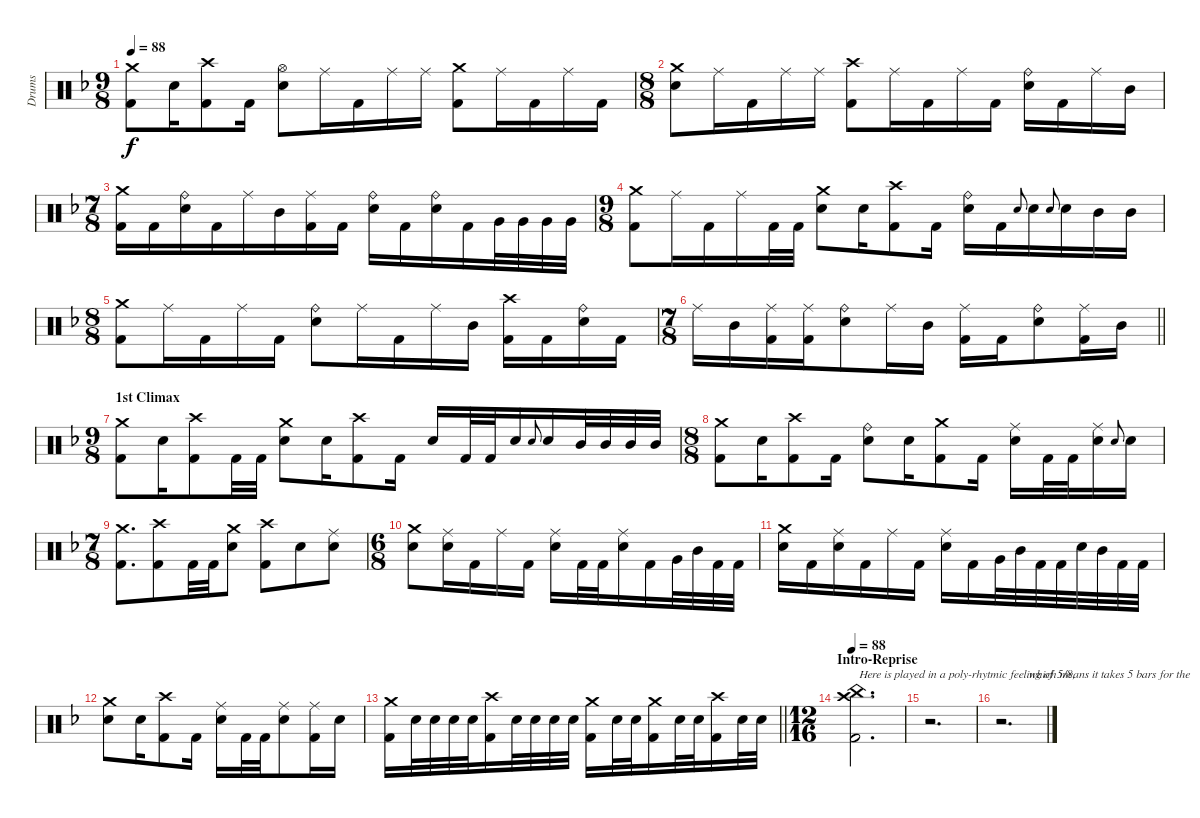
\track ("Drums" "Drums") {instrument percussion}
\staff {score}
\articulation defaults
\ts (9 8)
\tempo 88
\clef neutral
\ks dminor
("Crash medium (hit)" "Kick (hit) 2").8{dy f} "Snare (hit) 2".16 ("Crash high (hit)" "Kick (hit) 2").8 "Kick (hit) 2".16 ("Hi-Hat (open)" "Snare (hit) 2").8 "Ride (middle)".16 "Kick (hit) 2".16 "Ride (middle)".16 "Ride (middle)".16 ("Crash medium (hit)" "Kick (hit) 2").8 "Ride (middle)".16 "Kick (hit) 2".16 "Ride (middle)".16 "Kick (hit) 2".16 |
\ts (8 8)
("Crash medium (hit)" "Snare (hit) 2").8{beam merge} "Ride (middle)".16 "Kick (hit) 2".16{beam merge} "Ride (middle)".16 "Ride (middle)".16 ("Crash high (hit)" "Kick (hit) 2").8{beam merge} "Ride (middle)".16 "Kick (hit) 2".16{beam merge} "Ride (middle)".16 "Kick (hit) 2".16 ("Ride (bell)" "Snare (hit) 2").16 "Kick (hit) 2".16{beam merge} "Ride (middle)".16 "Mid Tom (hit)".16 |
\ts (7 8)
("Crash medium (hit)" "Kick (hit) 2").16 "Kick (hit) 2".16{beam merge} ("Ride (bell)" "Snare (hit) 2").16 "Kick (hit) 2".16{beam merge} "Ride (middle)".16 "Mid Tom (hit)".16{beam merge} ("Ride (middle)" "Kick (hit) 2").16 "Kick (hit) 2".16{beam split} ("Ride (bell)" "Snare (hit) 2").16 "Kick (hit) 2".16{beam merge} ("Ride (bell)" "Snare (hit) 2").16 "Kick (hit) 2".16{beam merge} "Very Low Tom (hit)".32 "Very Low Tom (hit)".32 "Very Low Tom (hit)".32 "Very Low Tom (hit)".32 |
\ts (9 8)
("Crash medium (hit)" "Kick (hit) 2").8 "Ride (middle)".16 "Kick (hit) 2".16 "Ride (middle)".16 "Kick (hit) 2".32 "Kick (hit) 2".32 ("Crash medium (hit)" "Snare (hit) 2").8 "Snare (hit) 2".16 ("Crash high (hit)" "Kick (hit) 2").8 "Kick (hit) 2".16 ("Ride (bell)" "Snare (hit) 2").16 "Kick (hit) 2".16 "Snare (hit) 2".8{gr onbeat} "Snare (hit) 2".16 "Snare (hit) 2".8{gr onbeat} "Snare (hit) 2".16 "Mid Tom (hit)".16 "Mid Tom (hit)".16 |
\ts (8 8)
("Crash medium (hit)" "Kick (hit) 2").8{beam merge} "Ride (middle)".16 "Kick (hit) 2".16{beam merge} "Ride (middle)".16 "Kick (hit) 2".16 ("Ride (bell)" "Snare (hit) 2").8{beam merge} "Ride (middle)".16 "Kick (hit) 2".16{beam merge} "Ride (middle)".16 "Mid Tom (hit)".16 ("Crash high (hit)" "Kick (hit) 2").16 "Kick (hit) 2".16{beam merge} ("Ride (bell)" "Snare (hit) 2").16 "Kick (hit) 2".16 |
\ts (7 8)
\barLineRight lightlight "Ride (middle)".16 "Mid Tom (hit)".16{beam merge}
("Ride (middle)" "Kick (hit) 2").16 ("Ride (middle)" "Kick (hit) 2").16{beam merge} ("Ride (bell)" "Snare (hit) 2").8{beam merge} "Ride (middle)".16 "Mid Tom (hit)".16{beam split} ("Ride (middle)" "Kick (hit) 2").16 "Kick (hit) 2".16{beam merge} ("Ride (bell)" "Snare (hit) 2").8{beam merge} ("Ride (middle)" "Kick (hit) 2").16 "Mid Tom (hit)".16 |
\ts (9 8)
\section ("" "1st Climax")
("Crash medium (hit)" "Kick (hit) 2").8 "Snare (hit) 2".16 ("Crash high (hit)" "Kick (hit) 2").8 "Kick (hit) 2".32 "Kick (hit) 2".32 ("Crash medium (hit)" "Snare (hit) 2").8 "Snare (hit) 2".16 ("Crash high (hit)" "Kick (hit) 2").8 "Kick (hit) 2".16 "Snare (hit) 2".16 "Kick (hit) 2".32 "Kick (hit) 2".32 "Snare (hit) 2".16 "Snare (hit) 2".8{gr onbeat} "Snare (hit) 2".16 "Mid Tom (hit)".32 "Mid Tom (hit)".32 "Mid Tom (hit)".32 "Mid Tom (hit)".32 |
\ts (8 8)
("Crash medium (hit)" "Kick (hit) 2").8{beam merge} "Snare (hit) 2".16 ("Crash high (hit)" "Kick (hit) 2").8{beam merge} "Kick (hit) 2".16 ("Ride (bell)" "Snare (hit) 2").8{beam merge} "Snare (hit) 2".16 ("Crash medium (hit)" "Kick (hit) 2").8{beam merge} "Kick (hit) 2".16 ("Ride (middle)" "Snare (hit) 2").16 "Kick (hit) 2".32 "Kick (hit) 2".32{beam merge} ("Ride (middle)" "Snare (hit) 2").16 "Snare (hit) 2".8{gr onbeat} "Snare (hit) 2".16 |
\ts (7 8)
("Crash medium (hit)" "Kick (hit) 2").8{d beam merge} ("Crash high (hit)" "Kick (hit) 2").8{beam merge} "Kick (hit) 2".32 "Kick (hit) 2".32 ("Crash medium (hit)" "Snare (hit) 2").8 ("Crash high (hit)" "Kick (hit) 2").8 "Snare (hit) 2".8 ("Ride (middle)" "Snare (hit) 2").8 |
\ts (6 8)
("Crash medium (hit)" "Snare (hit) 2").8 ("Ride (middle)" "Snare (hit) 2").16 "Kick (hit) 2".16 "Ride (middle)".16 "Kick (hit) 2".16 ("Ride (middle)" "Snare (hit) 2").16 "Kick (hit) 2".32 "Kick (hit) 2".32 ("Ride (middle)" "Snare (hit) 2").16 "Kick (hit) 2".16 "Very Low Tom (hit)".32 "Mid Tom (hit)".32 "Kick (hit) 2".32 "Kick (hit) 2".32 |
("Crash medium (hit)" "Snare (hit) 2").16 "Kick (hit) 2".16 ("Ride (middle)" "Snare (hit) 2").16 "Kick (hit) 2".16 "Ride (middle)".16 "Kick (hit) 2".16 ("Ride (middle)" "Snare (hit) 2").16 "Kick (hit) 2".16 "Very Low Tom (hit)".32 "Mid Tom (hit)".32 "Kick (hit) 2".32 "Kick (hit) 2".32 "Snare (hit) 2".32 "Mid Tom (hit)".32 "Kick (hit) 2".32 "Kick (hit) 2".32 |
("Crash medium (hit)" "Snare (hit) 2").8 "Snare (hit) 2".16 ("Crash high (hit)" "Kick (hit) 2").8 "Kick (hit) 2".16 ("Ride (middle)" "Snare (hit) 2").16 "Kick (hit) 2".32 "Kick (hit) 2".32 ("Ride (middle)" "Snare (hit) 2").8 ("Ride (middle)" "Kick (hit) 2").16 "Snare (hit) 2".16 |
\barLineRight lightlight
("Crash medium (hit)" "Kick (hit) 2").16 "Snare (hit) 2".32 "Snare (hit) 2".32 "Snare (hit) 2".32 "Snare (hit) 2".32 ("Crash high (hit)" "Kick (hit) 2").16 "Snare (hit) 2".32 "Snare (hit) 2".32 "Snare (hit) 2".32 "Snare (hit) 2".32 ("Crash medium (hit)" "Kick (hit) 2").16 "Snare (hit) 2".32 "Snare (hit) 2".32 ("Crash medium (hit)" "Kick (hit) 2").16 "Snare (hit) 2".32 "Snare (hit) 2".32 ("Crash high (hit)" "Kick (hit) 2").16 "Snare (hit) 2".32 "Snare (hit) 2".32 |
\ts (12 16)
\section ("" "Intro-Reprise")
\tempo 88
("China (hit)" "Crash high (hit)" "Kick (hit) 2").2{d txt "Here is played in a poly-rhytmic feeling of 5/8,"} |
r.2{d} |
r.2{d txt "         which means it takes 5 bars for the"}
